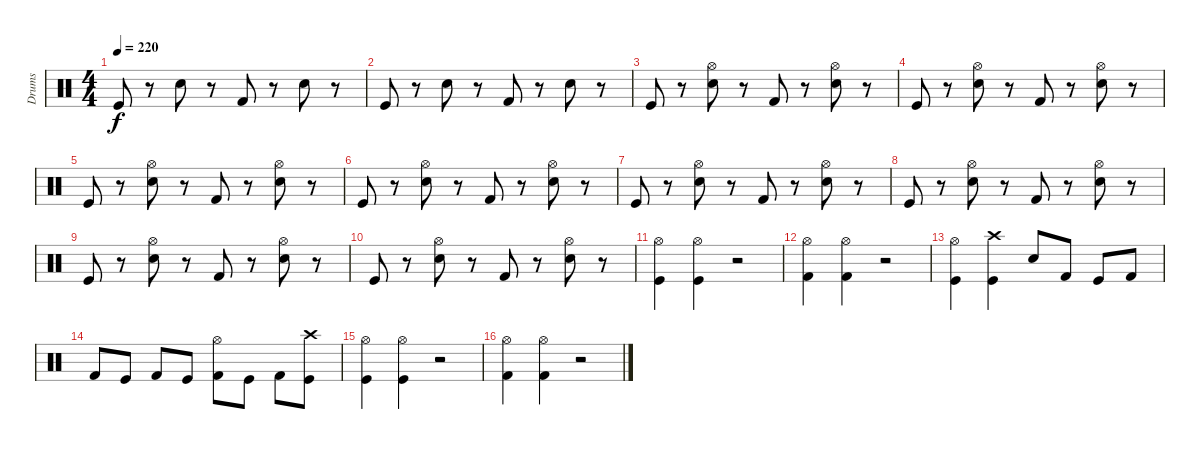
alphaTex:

\track ("Drums" "Drums") {instrument percussion}
\staff {score}
\articulation defaults
\ts (4 4)
\tempo 220
\clef neutral
\ks c "Kick (hit)".8{dy f}
r.8 "Electric Snare (hit)".8 r.8 "Kick (hit) 2".8 r.8 "Electric Snare (hit)".8 r.8 |
"Kick (hit)".8 r.8 "Electric Snare (hit)".8 r.8 "Kick (hit) 2".8 r.8 "Electric Snare (hit)".8 r.8 |
"Kick (hit)".8 r.8 ("Hi-Hat (open)" "Electric Snare (hit)").8 r.8 "Kick (hit) 2".8 r.8 ("Hi-Hat (open)" "Electric Snare (hit)").8 r.8 |
"Kick (hit)".8 r.8 ("Hi-Hat (open)" "Electric Snare (hit)").8 r.8 "Kick (hit) 2".8 r.8 ("Hi-Hat (open)" "Electric Snare (hit)").8 r.8 |
"Kick (hit)".8 r.8 ("Hi-Hat (open)" "Electric Snare (hit)").8 r.8 "Kick (hit) 2".8 r.8 ("Hi-Hat (open)" "Electric Snare (hit)").8 r.8 |
"Kick (hit)".8 r.8 ("Hi-Hat (open)" "Electric Snare (hit)").8 r.8 "Kick (hit) 2".8 r.8 ("Hi-Hat (open)" "Electric Snare (hit)").8 r.8 |
"Kick (hit)".8 r.8 ("Hi-Hat (open)" "Electric Snare (hit)").8 r.8 "Kick (hit) 2".8 r.8 ("Hi-Hat (open)" "Electric Snare (hit)").8 r.8 |
"Kick (hit)".8 r.8 ("Hi-Hat (open)" "Electric Snare (hit)").8 r.8 "Kick (hit) 2".8 r.8 ("Hi-Hat (open)" "Electric Snare (hit)").8 r.8 |
"Kick (hit)".8 r.8 ("Hi-Hat (open)" "Electric Snare (hit)").8 r.8 "Kick (hit) 2".8 r.8 ("Hi-Hat (open)" "Electric Snare (hit)").8 r.8 |
"Kick (hit)".8 r.8 ("Hi-Hat (open)" "Electric Snare (hit)").8 r.8 "Kick (hit) 2".8 r.8 ("Hi-Hat (open)" "Electric Snare (hit)").8 r.8 |
("Hi-Hat (open)" "Kick (hit)").4 ("Hi-Hat (open)" "Kick (hit)").4 r.2 |
("Hi-Hat (open)" "Kick (hit) 2").4 ("Hi-Hat (open)" "Kick (hit) 2").4 r.2 |
("Hi-Hat (open)" "Kick (hit)").4 ("Crash high (hit)" "Kick (hit)").4 "Electric Snare (hit)".8 "Kick (hit) 2".8 "Kick (hit)".8 "Kick (hit) 2".8 |
"Kick (hit) 2".8 "Kick (hit)".8 "Kick (hit) 2".8 "Kick (hit)".8 ("Hi-Hat (open)" "Kick (hit) 2").8 "Kick (hit)".8 "Kick (hit) 2".8 ("Crash high (hit)" "Kick (hit)").8 |
("Hi-Hat (open)" "Kick (hit)").4 ("Hi-Hat (open)" "Kick (hit)").4 r.2 |
("Hi-Hat (open)" "Kick (hit) 2").4 ("Hi-Hat (open)" "Kick (hit) 2").4 r.2
